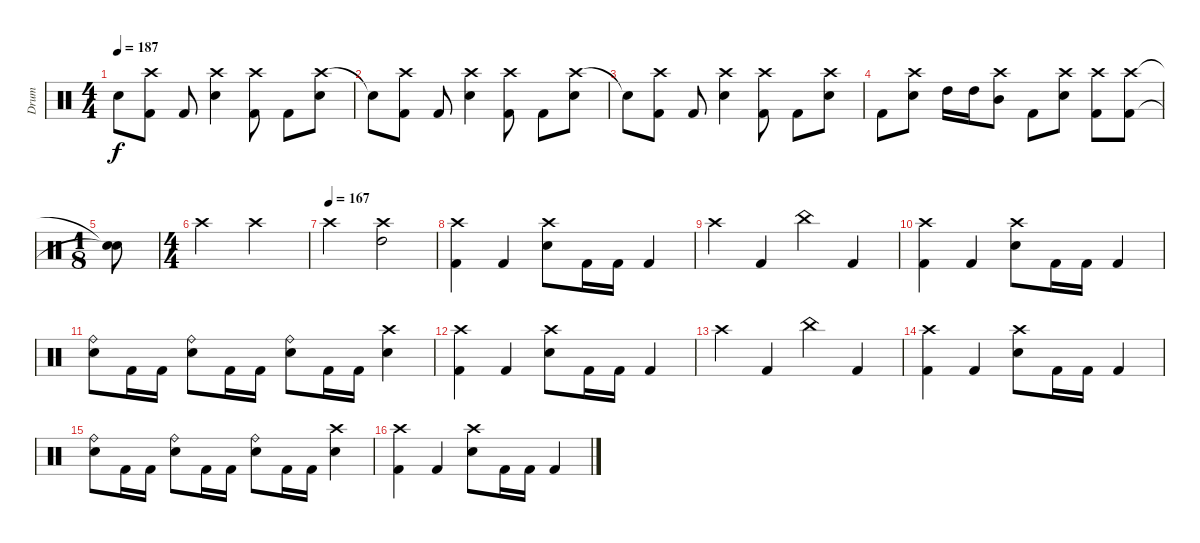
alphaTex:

\track ("Drum" "Drum") {instrument percussion}
\staff {score}
\articulation defaults
\ts (4 4)
\tempo 187
\clef neutral
\ks c "Snare (hit)"{t}.8{dy f}
("Crash high (hit)" "Kick (hit) 2").8 "Kick (hit) 2".8 ("Crash high (hit)" "Electric Snare (hit)").4 ("Crash high (hit)" "Kick (hit) 2").8 "Kick (hit) 2".8 ("Crash high (hit)" "Electric Snare (hit)").8 |
"Snare (hit)"{t}.8 ("Crash high (hit)" "Kick (hit) 2").8 "Kick (hit) 2".8 ("Crash high (hit)" "Electric Snare (hit)").4 ("Crash high (hit)" "Kick (hit) 2").8 "Kick (hit) 2".8 ("Crash high (hit)" "Electric Snare (hit)").8 |
"Snare (hit)"{t}.8 ("Crash high (hit)" "Kick (hit) 2").8 "Kick (hit) 2".8 ("Crash high (hit)" "Electric Snare (hit)").4 ("Crash high (hit)" "Kick (hit) 2").8 "Kick (hit) 2".8 ("Crash high (hit)" "Electric Snare (hit)").8 |
"Kick (hit) 2".8 ("Crash high (hit)" "Electric Snare (hit)").8 "High Tom (hit)".16 "High Tom (hit)".16 ("Crash high (hit)" "Mid Tom (hit)").8 "Kick (hit) 2".8 ("Crash high (hit)" "Electric Snare (hit)").8 ("Crash high (hit)" "Kick (hit) 2").8 ("Crash high (hit)" "Kick (hit) 2").8 |
\ts (1 8)
("Snare (hit)"{t} "Snare (hit)"{t}).8 |
\ts (4 4)
"Crash high (hit)".2 "Crash high (hit)".2 |
\tempo (167)
"Crash high (hit)".2 ("Crash high (hit)" "High Tom (hit)").2 |
("Crash high (hit)" "Kick (hit) 2").4 "Kick (hit) 2".4 ("Crash high (hit)" "Electric Snare (hit)").8 "Kick (hit) 2".16 "Kick (hit) 2".16 "Kick (hit) 2".4 |
"Crash high (hit)".4 "Kick (hit) 2".4 "China (hit)".4 "Kick (hit) 2".4 |
("Crash high (hit)" "Kick (hit) 2").4 "Kick (hit) 2".4 ("Crash high (hit)" "Electric Snare (hit)").8 "Kick (hit) 2".16 "Kick (hit) 2".16 "Kick (hit) 2".4 |
("Ride (bell)" "Electric Snare (hit)").8 "Kick (hit) 2".16 "Kick (hit) 2".16 ("Ride (bell)" "Electric Snare (hit)").8 "Kick (hit) 2".16 "Kick (hit) 2".16 ("Ride (bell)" "Electric Snare (hit)").8 "Kick (hit) 2".16 "Kick (hit) 2".16 ("Crash high (hit)" "Electric Snare (hit)").4 |
("Crash high (hit)" "Kick (hit) 2").4 "Kick (hit) 2".4 ("Crash high (hit)" "Electric Snare (hit)").8 "Kick (hit) 2".16 "Kick (hit) 2".16 "Kick (hit) 2".4 |
"Crash high (hit)".4 "Kick (hit) 2".4 "China (hit)".4 "Kick (hit) 2".4 |
("Crash high (hit)" "Kick (hit) 2").4 "Kick (hit) 2".4 ("Crash high (hit)" "Electric Snare (hit)").8 "Kick (hit) 2".16 "Kick (hit) 2".16 "Kick (hit) 2".4 |
("Ride (bell)" "Electric Snare (hit)").8 "Kick (hit) 2".16 "Kick (hit) 2".16 ("Ride (bell)" "Electric Snare (hit)").8 "Kick (hit) 2".16 "Kick (hit) 2".16 ("Ride (bell)" "Electric Snare (hit)").8 "Kick (hit) 2".16 "Kick (hit) 2".16 ("Crash high (hit)" "Electric Snare (hit)").4 |
("Crash high (hit)" "Kick (hit) 2").4 "Kick (hit) 2".4 ("Crash high (hit)" "Electric Snare (hit)").8 "Kick (hit) 2".16 "Kick (hit) 2".16 "Kick (hit) 2".4
